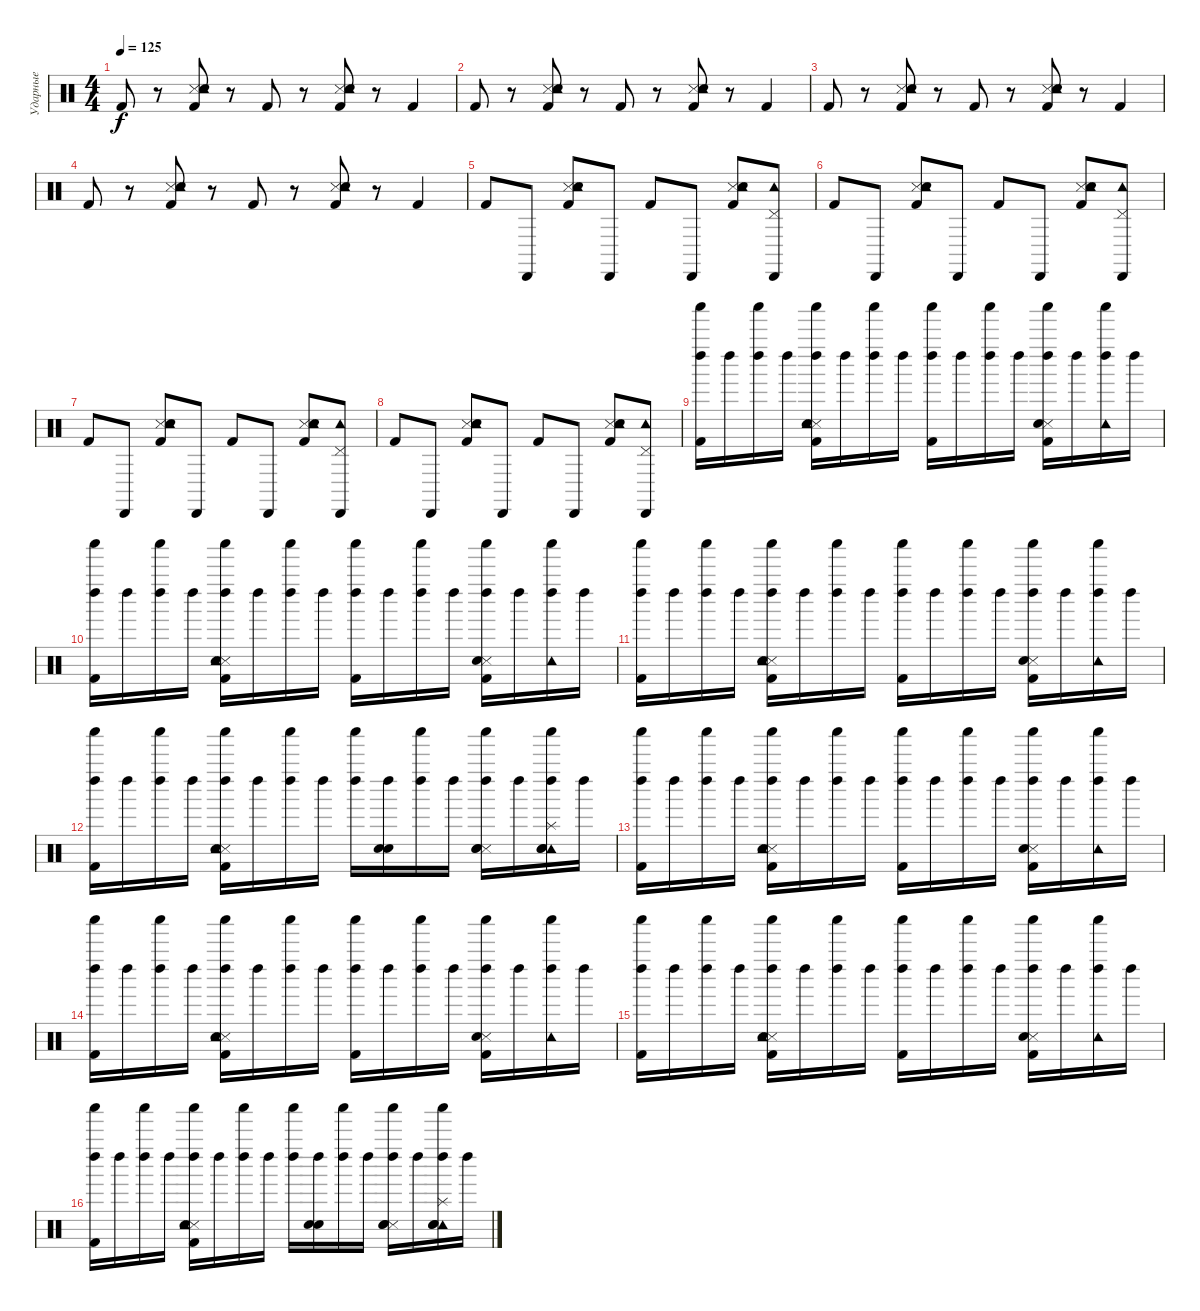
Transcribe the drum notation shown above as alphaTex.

\track ("Ударные" "Ударные") {instrument percussion}
\staff {score}
\articulation defaults
\ts (4 4)
\tempo 125
\clef neutral
\ks c "Kick (hit) 2".8{dy f}
r.8 ("Snare (side stick) 3" "Hand Clap (hit)" "Tambourine (hit)" "Kick (hit) 2").8 r.8 "Kick (hit) 2".8 r.8 ("Snare (side stick) 3" "Hand Clap (hit)" "Tambourine (hit)" "Kick (hit) 2").8 r.8 "Kick (hit) 2".4 |
"Kick (hit) 2".8 r.8 ("Snare (side stick) 3" "Hand Clap (hit)" "Tambourine (hit)" "Kick (hit) 2").8 r.8 "Kick (hit) 2".8 r.8 ("Snare (side stick) 3" "Hand Clap (hit)" "Tambourine (hit)" "Kick (hit) 2").8 r.8 "Kick (hit) 2".4 |
"Kick (hit) 2".8 r.8 ("Snare (side stick) 3" "Hand Clap (hit)" "Tambourine (hit)" "Kick (hit) 2").8 r.8 "Kick (hit) 2".8 r.8 ("Snare (side stick) 3" "Hand Clap (hit)" "Tambourine (hit)" "Kick (hit) 2").8 r.8 "Kick (hit) 2".4 |
"Kick (hit) 2".8 r.8 ("Snare (side stick) 3" "Hand Clap (hit)" "Tambourine (hit)" "Kick (hit) 2").8 r.8 "Kick (hit) 2".8 r.8 ("Snare (side stick) 3" "Hand Clap (hit)" "Tambourine (hit)" "Kick (hit) 2").8 r.8 "Kick (hit) 2".4 |
"Kick (hit) 2".8 "Cabasa (hit)".8 ("Snare (side stick) 3" "Hand Clap (hit)" "Tambourine (hit)" "Kick (hit) 2").8 "Cabasa (hit)".8 "Kick (hit) 2".8 "Cabasa (hit)".8 ("Snare (side stick) 3" "Hand Clap (hit)" "Tambourine (hit)" "Kick (hit) 2").8 ("Pedal Hi-Hat (hit)" "Tambourine (hit)" "Cabasa (hit)").8 |
"Kick (hit) 2".8 "Cabasa (hit)".8 ("Snare (side stick) 3" "Hand Clap (hit)" "Tambourine (hit)" "Kick (hit) 2").8 "Cabasa (hit)".8 "Kick (hit) 2".8 "Cabasa (hit)".8 ("Snare (side stick) 3" "Hand Clap (hit)" "Tambourine (hit)" "Kick (hit) 2").8 ("Pedal Hi-Hat (hit)" "Tambourine (hit)" "Cabasa (hit)").8 |
"Kick (hit) 2".8 "Cabasa (hit)".8 ("Snare (side stick) 3" "Hand Clap (hit)" "Tambourine (hit)" "Kick (hit) 2").8 "Cabasa (hit)".8 "Kick (hit) 2".8 "Cabasa (hit)".8 ("Snare (side stick) 3" "Hand Clap (hit)" "Tambourine (hit)" "Kick (hit) 2").8 ("Pedal Hi-Hat (hit)" "Tambourine (hit)" "Cabasa (hit)").8 |
"Kick (hit) 2".8 "Cabasa (hit)".8 ("Snare (side stick) 3" "Hand Clap (hit)" "Tambourine (hit)" "Kick (hit) 2").8 "Cabasa (hit)".8 "Kick (hit) 2".8 "Cabasa (hit)".8 ("Snare (side stick) 3" "Hand Clap (hit)" "Tambourine (hit)" "Kick (hit) 2").8 ("Pedal Hi-Hat (hit)" "Tambourine (hit)" "Cabasa (hit)").8 |
("Shaker (hit)" "Kick (hit) 2" "Left Maraca (hit)").16 "Left Maraca (hit)".16 ("Shaker (hit)" "Left Maraca (hit)").16 "Left Maraca (hit)".16 ("Shaker (hit)" "Snare (side stick) 3" "Hand Clap (hit)" "Tambourine (hit)" "Kick (hit) 2" "Left Maraca (hit)").16 "Left Maraca (hit)".16 ("Shaker (hit)" "Left Maraca (hit)").16 "Left Maraca (hit)".16 ("Shaker (hit)" "Kick (hit) 2" "Left Maraca (hit)").16 "Left Maraca (hit)".16 ("Shaker (hit)" "Left Maraca (hit)").16 "Left Maraca (hit)".16 ("Shaker (hit)" "Snare (side stick) 3" "Kick (hit) 2" "Hand Clap (hit)" "Left Maraca (hit)").16 "Left Maraca (hit)".16 ("Shaker (hit)" "Tambourine (hit)" "Left Maraca (hit)").16 "Left Maraca (hit)".16 |
("Shaker (hit)" "Kick (hit) 2" "Left Maraca (hit)").16 "Left Maraca (hit)".16 ("Shaker (hit)" "Left Maraca (hit)").16 "Left Maraca (hit)".16 ("Shaker (hit)" "Snare (side stick) 3" "Hand Clap (hit)" "Tambourine (hit)" "Kick (hit) 2" "Left Maraca (hit)").16 "Left Maraca (hit)".16 ("Shaker (hit)" "Left Maraca (hit)").16 "Left Maraca (hit)".16 ("Shaker (hit)" "Kick (hit) 2" "Left Maraca (hit)").16 "Left Maraca (hit)".16 ("Shaker (hit)" "Left Maraca (hit)").16 "Left Maraca (hit)".16 ("Shaker (hit)" "Snare (side stick) 3" "Kick (hit) 2" "Hand Clap (hit)" "Left Maraca (hit)").16 "Left Maraca (hit)".16 ("Shaker (hit)" "Tambourine (hit)" "Left Maraca (hit)").16 "Left Maraca (hit)".16 |
("Shaker (hit)" "Kick (hit) 2" "Left Maraca (hit)").16 "Left Maraca (hit)".16 ("Shaker (hit)" "Left Maraca (hit)").16 "Left Maraca (hit)".16 ("Shaker (hit)" "Snare (side stick) 3" "Hand Clap (hit)" "Tambourine (hit)" "Kick (hit) 2" "Left Maraca (hit)").16 "Left Maraca (hit)".16 ("Shaker (hit)" "Left Maraca (hit)").16 "Left Maraca (hit)".16 ("Shaker (hit)" "Kick (hit) 2" "Left Maraca (hit)").16 "Left Maraca (hit)".16 ("Shaker (hit)" "Left Maraca (hit)").16 "Left Maraca (hit)".16 ("Shaker (hit)" "Snare (side stick) 3" "Kick (hit) 2" "Hand Clap (hit)" "Left Maraca (hit)").16 "Left Maraca (hit)".16 ("Shaker (hit)" "Tambourine (hit)" "Left Maraca (hit)").16 "Left Maraca (hit)".16 |
("Shaker (hit)" "Kick (hit) 2" "Left Maraca (hit)").16 "Left Maraca (hit)".16 ("Shaker (hit)" "Left Maraca (hit)").16 "Left Maraca (hit)".16 ("Shaker (hit)" "Snare (side stick) 3" "Hand Clap (hit)" "Tambourine (hit)" "Kick (hit) 2" "Left Maraca (hit)").16 "Left Maraca (hit)".16 ("Shaker (hit)" "Left Maraca (hit)").16 "Left Maraca (hit)".16 ("Shaker (hit)" "Left Maraca (hit)").16 ("Electric Snare (hit)" "Snare (hit) 2" "Left Maraca (hit)").16 ("Shaker (hit)" "Left Maraca (hit)").16 "Left Maraca (hit)".16 ("Shaker (hit)" "Snare (side stick) 3" "Electric Snare (hit)" "Snare (hit) 2" "Left Maraca (hit)").16 "Left Maraca (hit)".16 ("Shaker (hit)" "Tambourine (hit)" "Electric Snare (hit)" "Snare (hit) 2" "Splash (hit)" "Left Maraca (hit)").16 "Left Maraca (hit)".16 |
("Shaker (hit)" "Kick (hit) 2" "Left Maraca (hit)").16 "Left Maraca (hit)".16 ("Shaker (hit)" "Left Maraca (hit)").16 "Left Maraca (hit)".16 ("Shaker (hit)" "Snare (side stick) 3" "Hand Clap (hit)" "Tambourine (hit)" "Kick (hit) 2" "Left Maraca (hit)").16 "Left Maraca (hit)".16 ("Shaker (hit)" "Left Maraca (hit)").16 "Left Maraca (hit)".16 ("Shaker (hit)" "Kick (hit) 2" "Left Maraca (hit)").16 "Left Maraca (hit)".16 ("Shaker (hit)" "Left Maraca (hit)").16 "Left Maraca (hit)".16 ("Shaker (hit)" "Snare (side stick) 3" "Kick (hit) 2" "Hand Clap (hit)" "Left Maraca (hit)").16 "Left Maraca (hit)".16 ("Shaker (hit)" "Tambourine (hit)" "Left Maraca (hit)").16 "Left Maraca (hit)".16 |
("Shaker (hit)" "Kick (hit) 2" "Left Maraca (hit)").16 "Left Maraca (hit)".16 ("Shaker (hit)" "Left Maraca (hit)").16 "Left Maraca (hit)".16 ("Shaker (hit)" "Snare (side stick) 3" "Hand Clap (hit)" "Tambourine (hit)" "Kick (hit) 2" "Left Maraca (hit)").16 "Left Maraca (hit)".16 ("Shaker (hit)" "Left Maraca (hit)").16 "Left Maraca (hit)".16 ("Shaker (hit)" "Kick (hit) 2" "Left Maraca (hit)").16 "Left Maraca (hit)".16 ("Shaker (hit)" "Left Maraca (hit)").16 "Left Maraca (hit)".16 ("Shaker (hit)" "Snare (side stick) 3" "Kick (hit) 2" "Hand Clap (hit)" "Left Maraca (hit)").16 "Left Maraca (hit)".16 ("Shaker (hit)" "Tambourine (hit)" "Left Maraca (hit)").16 "Left Maraca (hit)".16 |
("Shaker (hit)" "Kick (hit) 2" "Left Maraca (hit)").16 "Left Maraca (hit)".16 ("Shaker (hit)" "Left Maraca (hit)").16 "Left Maraca (hit)".16 ("Shaker (hit)" "Snare (side stick) 3" "Hand Clap (hit)" "Tambourine (hit)" "Kick (hit) 2" "Left Maraca (hit)").16 "Left Maraca (hit)".16 ("Shaker (hit)" "Left Maraca (hit)").16 "Left Maraca (hit)".16 ("Shaker (hit)" "Kick (hit) 2" "Left Maraca (hit)").16 "Left Maraca (hit)".16 ("Shaker (hit)" "Left Maraca (hit)").16 "Left Maraca (hit)".16 ("Shaker (hit)" "Snare (side stick) 3" "Kick (hit) 2" "Hand Clap (hit)" "Left Maraca (hit)").16 "Left Maraca (hit)".16 ("Shaker (hit)" "Tambourine (hit)" "Left Maraca (hit)").16 "Left Maraca (hit)".16 |
("Shaker (hit)" "Kick (hit) 2" "Left Maraca (hit)").16 "Left Maraca (hit)".16 ("Shaker (hit)" "Left Maraca (hit)").16 "Left Maraca (hit)".16 ("Shaker (hit)" "Snare (side stick) 3" "Hand Clap (hit)" "Tambourine (hit)" "Kick (hit) 2" "Left Maraca (hit)").16 "Left Maraca (hit)".16 ("Shaker (hit)" "Left Maraca (hit)").16 "Left Maraca (hit)".16 ("Shaker (hit)" "Left Maraca (hit)").16 ("Electric Snare (hit)" "Snare (hit) 2" "Left Maraca (hit)").16 ("Shaker (hit)" "Left Maraca (hit)").16 "Left Maraca (hit)".16 ("Shaker (hit)" "Snare (side stick) 3" "Electric Snare (hit)" "Snare (hit) 2" "Left Maraca (hit)").16 "Left Maraca (hit)".16 ("Shaker (hit)" "Tambourine (hit)" "Electric Snare (hit)" "Snare (hit) 2" "Splash (hit)" "Left Maraca (hit)").16 "Left Maraca (hit)".16
